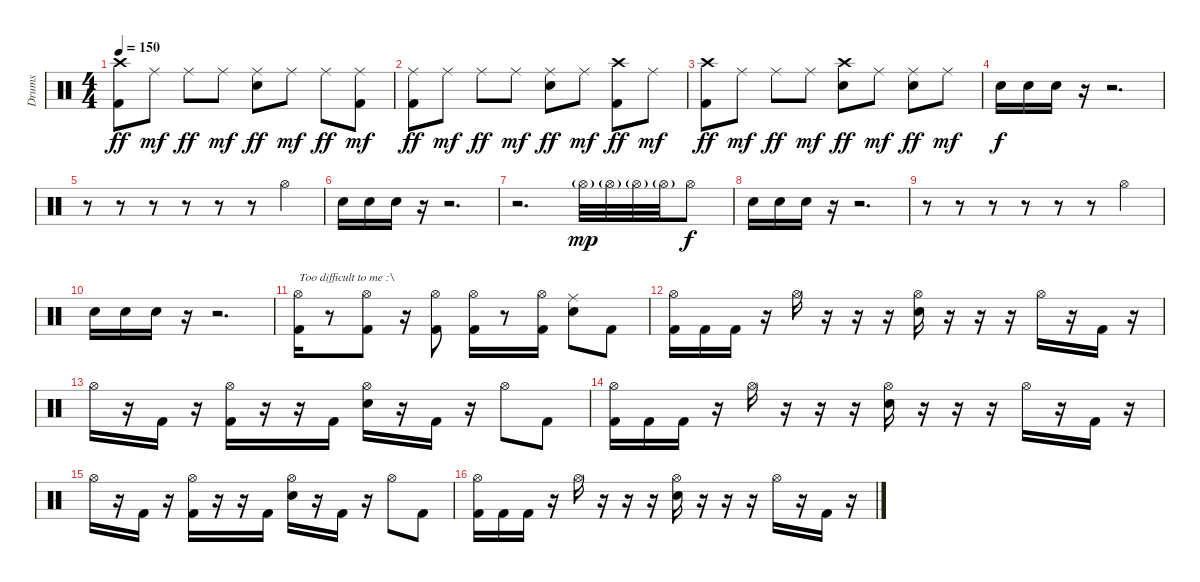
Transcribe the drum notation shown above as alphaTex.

\track ("Drums" "Drums") {instrument percussion}
\staff {score}
\articulation defaults
\ts (4 4)
\tempo 150
\clef neutral
\ks c
("Crash high (hit)" "Kick (hit) 2").8{dy ff} "Ride (middle)".8{dy mf} "Ride (middle)".8{dy ff} "Ride (middle)".8{dy mf} ("Ride (middle)" "Electric Snare (hit)").8{dy ff} "Ride (middle)".8{dy mf} "Ride (middle)".8{dy ff} ("Ride (middle)" "Kick (hit) 2").8{dy mf} |
("Ride (middle)" "Kick (hit) 2").8{dy ff} "Ride (middle)".8{dy mf} "Ride (middle)".8{dy ff} "Ride (middle)".8{dy mf} ("Ride (middle)" "Electric Snare (hit)").8{dy ff} "Ride (middle)".8{dy mf} ("Crash high (hit)" "Kick (hit) 2").8{dy ff} "Ride (middle)".8{dy mf} |
("Crash high (hit)" "Kick (hit) 2").8{dy ff} "Ride (middle)".8{dy mf} "Ride (middle)".8{dy ff} "Ride (middle)".8{dy mf} ("Crash high (hit)" "Electric Snare (hit)").8{dy ff} "Ride (middle)".8{dy mf} ("Ride (middle)" "Electric Snare (hit)").8{dy ff} "Ride (middle)".8{dy mf} |
"Electric Snare (hit)".16{dy f} "Electric Snare (hit)".16 "Electric Snare (hit)".16 r.16 r.2{d} |
r.8 r.8 r.8 r.8 r.8 r.8 "Hi-Hat (open)".4 |
"Electric Snare (hit)".16 "Electric Snare (hit)".16 "Electric Snare (hit)".16 r.16 r.2{d} |
r.2{d} "Hi-Hat (open)"{g}.32{dy mp} "Hi-Hat (open)"{g}.32 "Hi-Hat (open)"{g}.32 "Hi-Hat (open)"{g}.32 "Hi-Hat (open)".8{dy f} |
"Electric Snare (hit)".16 "Electric Snare (hit)".16 "Electric Snare (hit)".16 r.16 r.2{d} |
r.8 r.8 r.8 r.8 r.8 r.8 "Hi-Hat (open)".4 |
"Electric Snare (hit)".16 "Electric Snare (hit)".16 "Electric Snare (hit)".16 r.16 r.2{d} |
("Hi-Hat (open)" "Kick (hit) 2").16{txt "Too difficult to me :\\"} r.8 ("Hi-Hat (open)" "Kick (hit) 2").8 r.16 ("Hi-Hat (open)" "Kick (hit) 2").8 ("Hi-Hat (open)" "Kick (hit) 2").16 r.8 ("Hi-Hat (open)" "Kick (hit) 2").16 ("Ride (middle)" "Electric Snare (hit)").8 "Kick (hit) 2".8 |
("Hi-Hat (open)" "Kick (hit) 2").16 "Kick (hit) 2".16 "Kick (hit) 2".16 r.16 "Hi-Hat (open)".16 r.16 r.16 r.16 ("Hi-Hat (open)" "Electric Snare (hit)").16 r.16 r.16 r.16 "Hi-Hat (open)".16 r.16 "Kick (hit) 2".16 r.16 |
"Hi-Hat (open)".16 r.16 "Kick (hit) 2".16 r.16 ("Hi-Hat (open)" "Kick (hit) 2").16 r.16 r.16 "Kick (hit) 2".16 ("Hi-Hat (open)" "Electric Snare (hit)").16 r.16 "Kick (hit) 2".16 r.16 "Hi-Hat (open)".8 "Kick (hit) 2".8 |
("Hi-Hat (open)" "Kick (hit) 2").16 "Kick (hit) 2".16 "Kick (hit) 2".16 r.16 "Hi-Hat (open)".16 r.16 r.16 r.16 ("Hi-Hat (open)" "Electric Snare (hit)").16 r.16 r.16 r.16 "Hi-Hat (open)".16 r.16 "Kick (hit) 2".16 r.16 |
"Hi-Hat (open)".16 r.16 "Kick (hit) 2".16 r.16 ("Hi-Hat (open)" "Kick (hit) 2").16 r.16 r.16 "Kick (hit) 2".16 ("Hi-Hat (open)" "Electric Snare (hit)").16 r.16 "Kick (hit) 2".16 r.16 "Hi-Hat (open)".8 "Kick (hit) 2".8 |
("Hi-Hat (open)" "Kick (hit) 2").16 "Kick (hit) 2".16 "Kick (hit) 2".16 r.16 "Hi-Hat (open)".16 r.16 r.16 r.16 ("Hi-Hat (open)" "Electric Snare (hit)").16 r.16 r.16 r.16 "Hi-Hat (open)".16 r.16 "Kick (hit) 2".16 r.16
